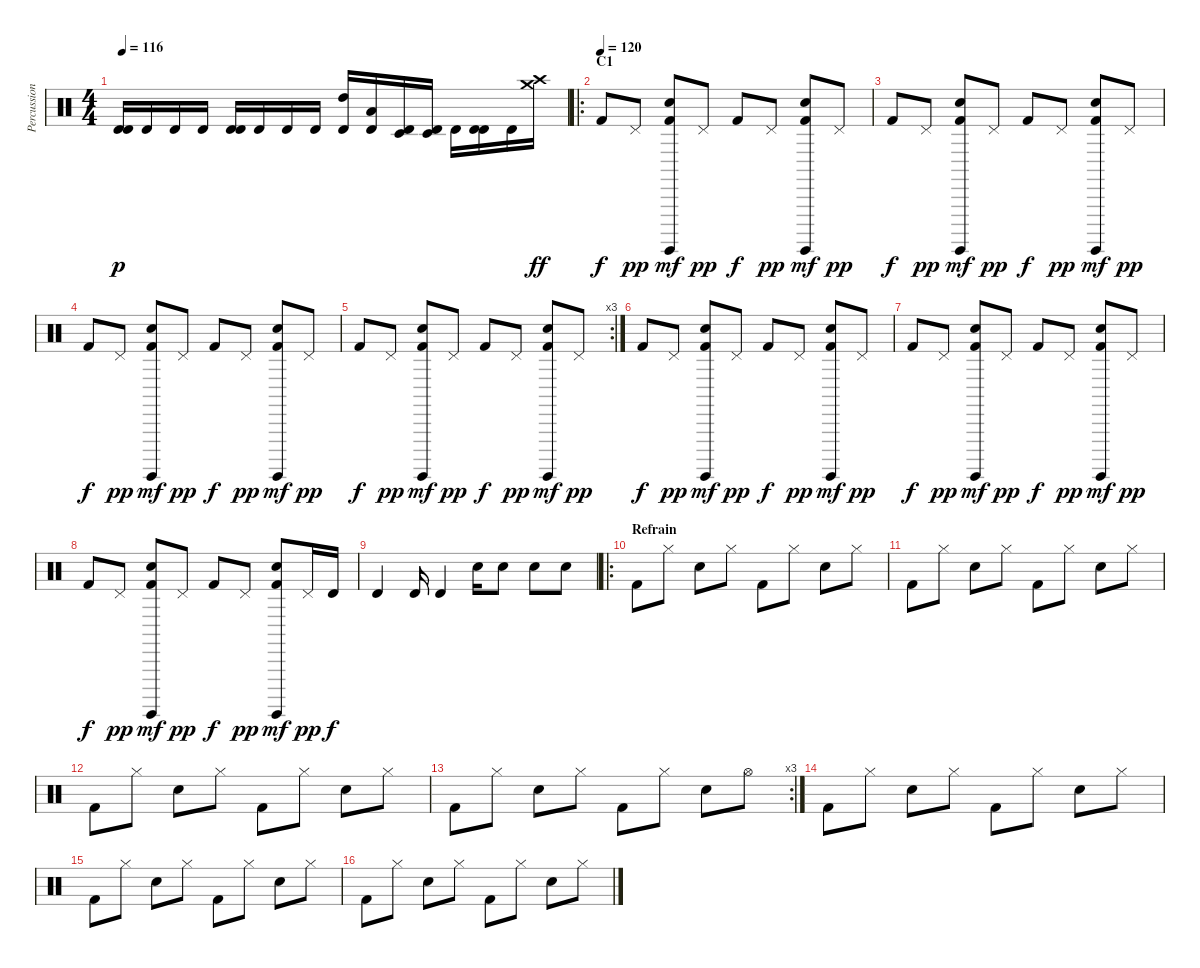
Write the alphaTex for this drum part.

\track ("Percussions" "Percussion") {instrument percussion}
\staff {score}
\articulation defaults
\ts (4 4)
\tempo 116
\tempo 130
\tempo 116
\clef neutral
\ks c
("Timbale high (hit)" "Timbale high (hit)").16{dy p} "Timbale high (hit)".16 "Timbale high (hit)".16 "Timbale high (hit)".16 ("Timbale high (hit)" "Timbale high (hit)").16 "Timbale high (hit)".16 "Timbale high (hit)".16 "Timbale high (hit)".16 ("Timbale high (hit)" "High Tom (hit)").16 ("Timbale high (hit)" "Low Tom (hit)").16 ("Timbale high (hit)" "Timbale low (hit)").16 ("Timbale high (hit)" "Timbale low (hit)").16 "Timbale high (hit)".16 ("Timbale high (hit)" "Timbale high (hit)").16 "Timbale high (hit)".16 ("Crash medium (hit)" "Crash high (hit)").16{dy ff} |
\ro
\section ("" "C1")
\tempo (120)
"Kick (hit) 2".8{dy f} "Pedal Hi-Hat (hit)".8{dy pp} ("Surdo (hit)" "Electric Snare (hit)" "Kick (hit) 2").8{dy mf} "Pedal Hi-Hat (hit)".8{dy pp} "Kick (hit) 2".8{dy f} "Pedal Hi-Hat (hit)".8{dy pp} ("Surdo (hit)" "Electric Snare (hit)" "Kick (hit) 2").8{dy mf} "Pedal Hi-Hat (hit)".8{dy pp} |
"Kick (hit) 2".8{dy f} "Pedal Hi-Hat (hit)".8{dy pp} ("Surdo (hit)" "Electric Snare (hit)" "Kick (hit) 2").8{dy mf} "Pedal Hi-Hat (hit)".8{dy pp} "Kick (hit) 2".8{dy f} "Pedal Hi-Hat (hit)".8{dy pp} ("Surdo (hit)" "Electric Snare (hit)" "Kick (hit) 2").8{dy mf} "Pedal Hi-Hat (hit)".8{dy pp} |
"Kick (hit) 2".8{dy f} "Pedal Hi-Hat (hit)".8{dy pp} ("Surdo (hit)" "Electric Snare (hit)" "Kick (hit) 2").8{dy mf} "Pedal Hi-Hat (hit)".8{dy pp} "Kick (hit) 2".8{dy f} "Pedal Hi-Hat (hit)".8{dy pp} ("Surdo (hit)" "Electric Snare (hit)" "Kick (hit) 2").8{dy mf} "Pedal Hi-Hat (hit)".8{dy pp} |
\rc 3 "Kick (hit) 2".8{dy f} "Pedal Hi-Hat (hit)".8{dy pp}
("Surdo (hit)" "Electric Snare (hit)" "Kick (hit) 2").8{dy mf} "Pedal Hi-Hat (hit)".8{dy pp} "Kick (hit) 2".8{dy f} "Pedal Hi-Hat (hit)".8{dy pp} ("Surdo (hit)" "Electric Snare (hit)" "Kick (hit) 2").8{dy mf} "Pedal Hi-Hat (hit)".8{dy pp} |
"Kick (hit) 2".8{dy f} "Pedal Hi-Hat (hit)".8{dy pp} ("Surdo (hit)" "Electric Snare (hit)" "Kick (hit) 2").8{dy mf} "Pedal Hi-Hat (hit)".8{dy pp} "Kick (hit) 2".8{dy f} "Pedal Hi-Hat (hit)".8{dy pp} ("Surdo (hit)" "Electric Snare (hit)" "Kick (hit) 2").8{dy mf} "Pedal Hi-Hat (hit)".8{dy pp} |
"Kick (hit) 2".8{dy f} "Pedal Hi-Hat (hit)".8{dy pp} ("Surdo (hit)" "Electric Snare (hit)" "Kick (hit) 2").8{dy mf} "Pedal Hi-Hat (hit)".8{dy pp} "Kick (hit) 2".8{dy f} "Pedal Hi-Hat (hit)".8{dy pp} ("Surdo (hit)" "Electric Snare (hit)" "Kick (hit) 2").8{dy mf} "Pedal Hi-Hat (hit)".8{dy pp} |
"Kick (hit) 2".8{dy f} "Pedal Hi-Hat (hit)".8{dy pp} ("Surdo (hit)" "Electric Snare (hit)" "Kick (hit) 2").8{dy mf} "Pedal Hi-Hat (hit)".8{dy pp} "Kick (hit) 2".8{dy f} "Pedal Hi-Hat (hit)".8{dy pp} ("Surdo (hit)" "Electric Snare (hit)" "Kick (hit) 2").8{dy mf} "Pedal Hi-Hat (hit)".16{dy pp} "Timbale high (hit)".16{dy f} |
"Timbale high (hit)".4 "Timbale high (hit)".16 "Timbale high (hit)".4 "Electric Snare (hit)".16 "Electric Snare (hit)".8 "Electric Snare (hit)".8 "Electric Snare (hit)".8 |
\ro
\section ("" "Refrain")
"Kick (hit) 2".8 "Hi-Hat (closed)".8 "Electric Snare (hit)".8 "Hi-Hat (closed)".8 "Kick (hit) 2".8 "Hi-Hat (closed)".8 "Electric Snare (hit)".8 "Hi-Hat (closed)".8 |
"Kick (hit) 2".8 "Hi-Hat (closed)".8 "Electric Snare (hit)".8 "Hi-Hat (closed)".8 "Kick (hit) 2".8 "Hi-Hat (closed)".8 "Electric Snare (hit)".8 "Hi-Hat (closed)".8 |
"Kick (hit) 2".8 "Hi-Hat (closed)".8 "Electric Snare (hit)".8 "Hi-Hat (closed)".8 "Kick (hit) 2".8 "Hi-Hat (closed)".8 "Electric Snare (hit)".8 "Hi-Hat (closed)".8 |
\rc 3 "Kick (hit) 2".8 "Hi-Hat (closed)".8 "Electric Snare (hit)".8 "Hi-Hat (closed)".8 "Kick (hit) 2".8 "Hi-Hat (closed)".8 "Electric Snare (hit)".8 "Hi-Hat (open)".8
|
"Kick (hit) 2".8 "Hi-Hat (closed)".8 "Electric Snare (hit)".8 "Hi-Hat (closed)".8 "Kick (hit) 2".8 "Hi-Hat (closed)".8 "Electric Snare (hit)".8 "Hi-Hat (closed)".8 |
"Kick (hit) 2".8 "Hi-Hat (closed)".8 "Electric Snare (hit)".8 "Hi-Hat (closed)".8 "Kick (hit) 2".8 "Hi-Hat (closed)".8 "Electric Snare (hit)".8 "Hi-Hat (closed)".8 |
"Kick (hit) 2".8 "Hi-Hat (closed)".8 "Electric Snare (hit)".8 "Hi-Hat (closed)".8 "Kick (hit) 2".8 "Hi-Hat (closed)".8 "Electric Snare (hit)".8 "Hi-Hat (closed)".8
